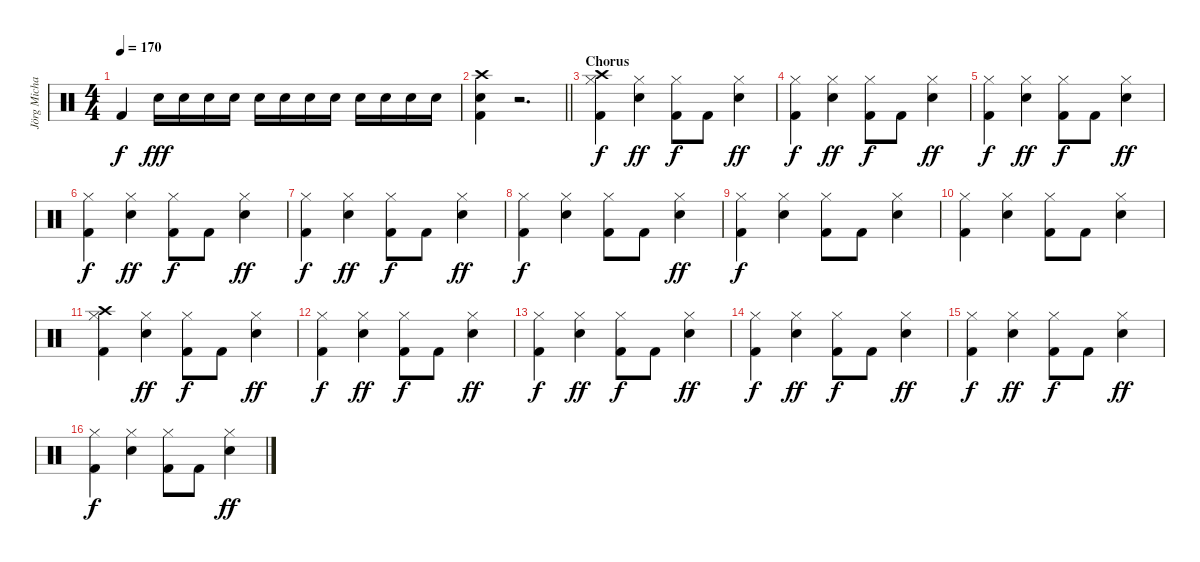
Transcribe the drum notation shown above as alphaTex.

\track ("Jörg Michael" "Jörg Micha") {instrument percussion}
\staff {score}
\articulation defaults
\ts (4 4)
\tempo 170
\clef neutral
\ks c "Kick (hit) 2".4{dy f} "Electric Snare (hit)".16{dy fff} "Electric Snare (hit)".16 "Electric Snare (hit)".16 "Electric Snare (hit)".16 "Electric Snare (hit)".16 "Electric Snare (hit)".16 "Electric Snare (hit)".16 "Electric Snare (hit)".16 "Electric Snare (hit)".16 "Electric Snare (hit)".16 "Electric Snare (hit)".16 "Electric Snare (hit)".16
|
\barLineRight lightlight
("Kick (hit) 2" "Electric Snare (hit)" "Crash high (hit)").4 r.2{d} |
\section ("" "Chorus")
("Kick (hit) 2" "Hi-Hat (closed)" "Crash high (hit)").4{dy f} ("Electric Snare (hit)" "Hi-Hat (closed)").4{dy ff} ("Kick (hit) 2" "Hi-Hat (closed)").8{dy f} "Kick (hit) 2".8 ("Electric Snare (hit)" "Hi-Hat (closed)").4{dy ff} |
("Kick (hit) 2" "Hi-Hat (closed)").4{dy f} ("Electric Snare (hit)" "Hi-Hat (closed)").4{dy ff} ("Kick (hit) 2" "Hi-Hat (closed)").8{dy f} "Kick (hit) 2".8 ("Electric Snare (hit)" "Hi-Hat (closed)").4{dy ff} |
("Kick (hit) 2" "Hi-Hat (closed)").4{dy f} ("Electric Snare (hit)" "Hi-Hat (closed)").4{dy ff} ("Kick (hit) 2" "Hi-Hat (closed)").8{dy f} "Kick (hit) 2".8 ("Electric Snare (hit)" "Hi-Hat (closed)").4{dy ff} |
("Kick (hit) 2" "Hi-Hat (closed)").4{dy f} ("Electric Snare (hit)" "Hi-Hat (closed)").4{dy ff} ("Kick (hit) 2" "Hi-Hat (closed)").8{dy f} "Kick (hit) 2".8 ("Electric Snare (hit)" "Hi-Hat (closed)").4{dy ff} |
("Kick (hit) 2" "Hi-Hat (closed)").4{dy f} ("Electric Snare (hit)" "Hi-Hat (closed)").4{dy ff} ("Kick (hit) 2" "Hi-Hat (closed)").8{dy f} "Kick (hit) 2".8 ("Electric Snare (hit)" "Hi-Hat (closed)").4{dy ff} |
("Kick (hit) 2" "Hi-Hat (closed)").4{dy f} ("Electric Snare (hit)" "Hi-Hat (closed)").4 ("Kick (hit) 2" "Hi-Hat (closed)").8 "Kick (hit) 2".8 ("Electric Snare (hit)" "Hi-Hat (closed)").4{dy ff} |
("Kick (hit) 2" "Hi-Hat (closed)").4{dy f} ("Electric Snare (hit)" "Hi-Hat (closed)").4 ("Kick (hit) 2" "Hi-Hat (closed)").8 "Kick (hit) 2".8 ("Electric Snare (hit)" "Hi-Hat (closed)").4 |
("Kick (hit) 2" "Hi-Hat (closed)").4 ("Electric Snare (hit)" "Hi-Hat (closed)").4 ("Kick (hit) 2" "Hi-Hat (closed)").8 "Kick (hit) 2".8 ("Electric Snare (hit)" "Hi-Hat (closed)").4 |
("Kick (hit) 2" "Hi-Hat (closed)" "Crash high (hit)").4 ("Electric Snare (hit)" "Hi-Hat (closed)").4{dy ff} ("Kick (hit) 2" "Hi-Hat (closed)").8{dy f} "Kick (hit) 2".8 ("Electric Snare (hit)" "Hi-Hat (closed)").4{dy ff} |
("Kick (hit) 2" "Hi-Hat (closed)").4{dy f} ("Electric Snare (hit)" "Hi-Hat (closed)").4{dy ff} ("Kick (hit) 2" "Hi-Hat (closed)").8{dy f} "Kick (hit) 2".8 ("Electric Snare (hit)" "Hi-Hat (closed)").4{dy ff} |
("Kick (hit) 2" "Hi-Hat (closed)").4{dy f} ("Electric Snare (hit)" "Hi-Hat (closed)").4{dy ff} ("Kick (hit) 2" "Hi-Hat (closed)").8{dy f} "Kick (hit) 2".8 ("Electric Snare (hit)" "Hi-Hat (closed)").4{dy ff} |
("Kick (hit) 2" "Hi-Hat (closed)").4{dy f} ("Electric Snare (hit)" "Hi-Hat (closed)").4{dy ff} ("Kick (hit) 2" "Hi-Hat (closed)").8{dy f} "Kick (hit) 2".8 ("Electric Snare (hit)" "Hi-Hat (closed)").4{dy ff} |
("Kick (hit) 2" "Hi-Hat (closed)").4{dy f} ("Electric Snare (hit)" "Hi-Hat (closed)").4{dy ff} ("Kick (hit) 2" "Hi-Hat (closed)").8{dy f} "Kick (hit) 2".8 ("Electric Snare (hit)" "Hi-Hat (closed)").4{dy ff} |
("Kick (hit) 2" "Hi-Hat (closed)").4{dy f} ("Electric Snare (hit)" "Hi-Hat (closed)").4 ("Kick (hit) 2" "Hi-Hat (closed)").8 "Kick (hit) 2".8 ("Electric Snare (hit)" "Hi-Hat (closed)").4{dy ff}
